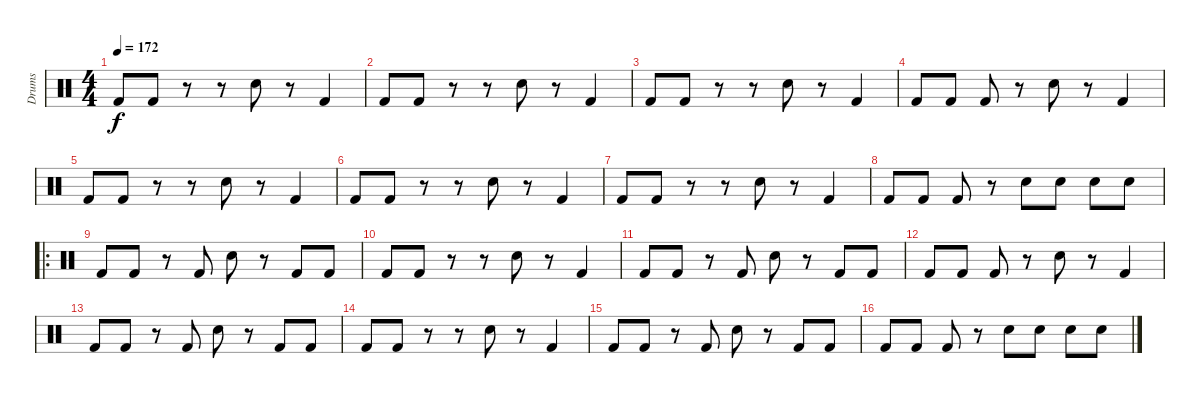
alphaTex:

\track ("Drums" "Drums") {instrument percussion}
\staff {score}
\articulation defaults
\ts (4 4)
\tempo 172
\clef neutral
\ks c "Kick (hit) 2".8{dy f} "Kick (hit) 2".8
r.8 r.8 "Snare (hit) 2".8 r.8 "Kick (hit) 2".4 |
"Kick (hit) 2".8 "Kick (hit) 2".8 r.8 r.8 "Snare (hit) 2".8 r.8 "Kick (hit) 2".4 |
"Kick (hit) 2".8 "Kick (hit) 2".8 r.8 r.8 "Snare (hit) 2".8 r.8 "Kick (hit) 2".4 |
"Kick (hit) 2".8 "Kick (hit) 2".8 "Kick (hit) 2".8 r.8 "Snare (hit) 2".8 r.8 "Kick (hit) 2".4 |
"Kick (hit) 2".8 "Kick (hit) 2".8 r.8 r.8 "Snare (hit) 2".8 r.8 "Kick (hit) 2".4 |
"Kick (hit) 2".8 "Kick (hit) 2".8 r.8 r.8 "Snare (hit) 2".8 r.8 "Kick (hit) 2".4 |
"Kick (hit) 2".8 "Kick (hit) 2".8 r.8 r.8 "Snare (hit) 2".8 r.8 "Kick (hit) 2".4 |
"Kick (hit) 2".8 "Kick (hit) 2".8 "Kick (hit) 2".8 r.8 "Snare (hit) 2".8 "Snare (hit) 2".8 "Snare (hit) 2".8 "Snare (hit) 2".8 |
\ro "Kick (hit) 2".8 "Kick (hit) 2".8
r.8 "Kick (hit) 2".8 "Snare (hit) 2".8 r.8 "Kick (hit) 2".8 "Kick (hit) 2".8 |
"Kick (hit) 2".8 "Kick (hit) 2".8 r.8 r.8 "Snare (hit) 2".8 r.8 "Kick (hit) 2".4 |
"Kick (hit) 2".8 "Kick (hit) 2".8 r.8 "Kick (hit) 2".8 "Snare (hit) 2".8 r.8 "Kick (hit) 2".8 "Kick (hit) 2".8 |
"Kick (hit) 2".8 "Kick (hit) 2".8 "Kick (hit) 2".8 r.8 "Snare (hit) 2".8 r.8 "Kick (hit) 2".4 |
"Kick (hit) 2".8 "Kick (hit) 2".8 r.8 "Kick (hit) 2".8 "Snare (hit) 2".8 r.8 "Kick (hit) 2".8 "Kick (hit) 2".8 |
"Kick (hit) 2".8 "Kick (hit) 2".8 r.8 r.8 "Snare (hit) 2".8 r.8 "Kick (hit) 2".4 |
"Kick (hit) 2".8 "Kick (hit) 2".8 r.8 "Kick (hit) 2".8 "Snare (hit) 2".8 r.8 "Kick (hit) 2".8 "Kick (hit) 2".8 |
"Kick (hit) 2".8 "Kick (hit) 2".8 "Kick (hit) 2".8 r.8 "Snare (hit) 2".8 "Snare (hit) 2".8 "Snare (hit) 2".8 "Snare (hit) 2".8
